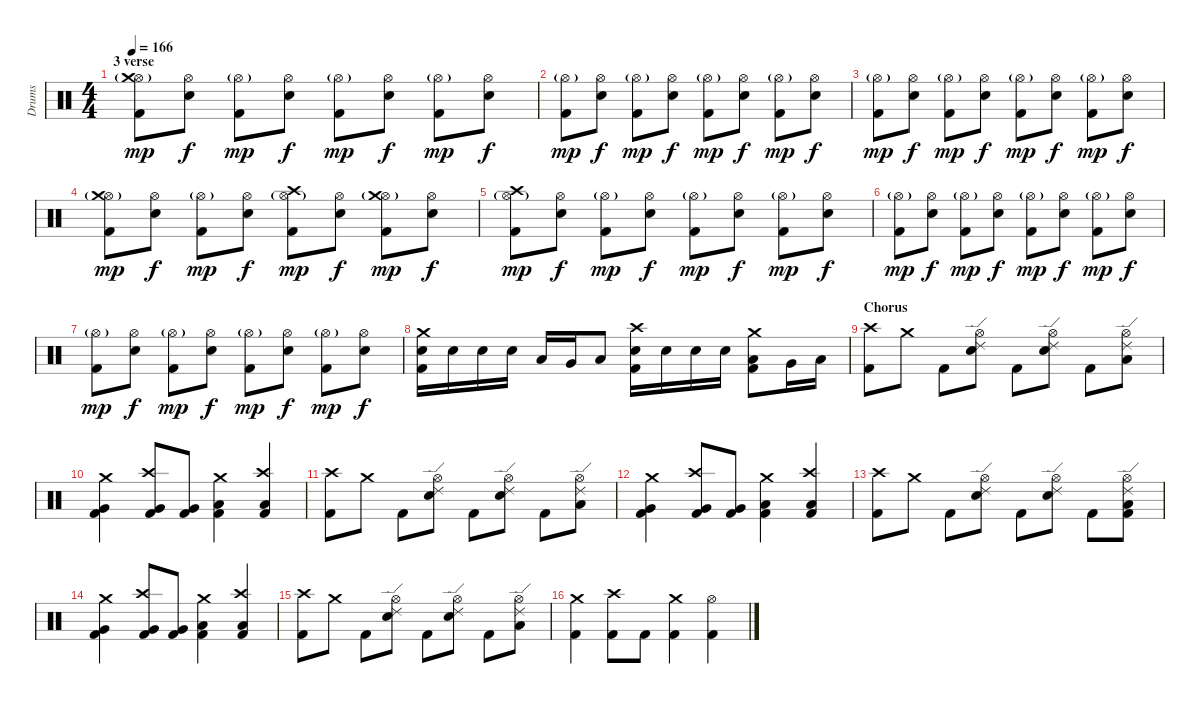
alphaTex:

\track ("Drums" "Drums") {instrument percussion}
\staff {score}
\articulation defaults
\ts (4 4)
\section ("" "3 verse")
\tempo 166
\clef neutral
\ks c
("Hi-Hat (open)"{g} "Crash medium (hit)" "Kick (hit) 2").8{dy mp} ("Hi-Hat (open)" "Electric Snare (hit)").8{dy f} ("Hi-Hat (open)"{g} "Kick (hit) 2").8{dy mp} ("Hi-Hat (open)" "Electric Snare (hit)").8{dy f} ("Hi-Hat (open)"{g} "Kick (hit) 2").8{dy mp} ("Hi-Hat (open)" "Electric Snare (hit)").8{dy f} ("Hi-Hat (open)"{g} "Kick (hit) 2").8{dy mp} ("Hi-Hat (open)" "Electric Snare (hit)").8{dy f} |
("Hi-Hat (open)"{g} "Kick (hit) 2").8{dy mp} ("Hi-Hat (open)" "Electric Snare (hit)").8{dy f} ("Hi-Hat (open)"{g} "Kick (hit) 2").8{dy mp} ("Hi-Hat (open)" "Electric Snare (hit)").8{dy f} ("Hi-Hat (open)"{g} "Kick (hit) 2").8{dy mp} ("Hi-Hat (open)" "Electric Snare (hit)").8{dy f} ("Hi-Hat (open)"{g} "Kick (hit) 2").8{dy mp} ("Hi-Hat (open)" "Electric Snare (hit)").8{dy f} |
("Hi-Hat (open)"{g} "Kick (hit) 2").8{dy mp} ("Hi-Hat (open)" "Electric Snare (hit)").8{dy f} ("Hi-Hat (open)"{g} "Kick (hit) 2").8{dy mp} ("Hi-Hat (open)" "Electric Snare (hit)").8{dy f} ("Hi-Hat (open)"{g} "Kick (hit) 2").8{dy mp} ("Hi-Hat (open)" "Electric Snare (hit)").8{dy f} ("Hi-Hat (open)"{g} "Kick (hit) 2").8{dy mp} ("Hi-Hat (open)" "Electric Snare (hit)").8{dy f} |
("Hi-Hat (open)"{g} "Crash medium (hit)" "Kick (hit) 2").8{dy mp} ("Hi-Hat (open)" "Electric Snare (hit)").8{dy f} ("Hi-Hat (open)"{g} "Kick (hit) 2").8{dy mp} ("Hi-Hat (open)" "Electric Snare (hit)").8{dy f} ("Hi-Hat (open)"{g} "Crash high (hit)" "Kick (hit) 2").8{dy mp} ("Hi-Hat (open)" "Electric Snare (hit)").8{dy f} ("Hi-Hat (open)"{g} "Crash medium (hit)" "Kick (hit) 2").8{dy mp} ("Hi-Hat (open)" "Electric Snare (hit)").8{dy f} |
("Hi-Hat (open)"{g} "Crash high (hit)" "Kick (hit) 2").8{dy mp} ("Hi-Hat (open)" "Electric Snare (hit)").8{dy f} ("Hi-Hat (open)"{g} "Kick (hit) 2").8{dy mp} ("Hi-Hat (open)" "Electric Snare (hit)").8{dy f} ("Hi-Hat (open)"{g} "Kick (hit) 2").8{dy mp} ("Hi-Hat (open)" "Electric Snare (hit)").8{dy f} ("Hi-Hat (open)"{g} "Kick (hit) 2").8{dy mp} ("Hi-Hat (open)" "Electric Snare (hit)").8{dy f} |
("Hi-Hat (open)"{g} "Kick (hit) 2").8{dy mp} ("Hi-Hat (open)" "Electric Snare (hit)").8{dy f} ("Hi-Hat (open)"{g} "Kick (hit) 2").8{dy mp} ("Hi-Hat (open)" "Electric Snare (hit)").8{dy f} ("Hi-Hat (open)"{g} "Kick (hit) 2").8{dy mp} ("Hi-Hat (open)" "Electric Snare (hit)").8{dy f} ("Hi-Hat (open)"{g} "Kick (hit) 2").8{dy mp} ("Hi-Hat (open)" "Electric Snare (hit)").8{dy f} |
("Hi-Hat (open)"{g} "Kick (hit) 2").8{dy mp} ("Hi-Hat (open)" "Electric Snare (hit)").8{dy f} ("Hi-Hat (open)"{g} "Kick (hit) 2").8{dy mp} ("Hi-Hat (open)" "Electric Snare (hit)").8{dy f} ("Hi-Hat (open)"{g} "Kick (hit) 2").8{dy mp} ("Hi-Hat (open)" "Electric Snare (hit)").8{dy f} ("Hi-Hat (open)"{g} "Kick (hit) 2").8{dy mp} ("Hi-Hat (open)" "Electric Snare (hit)").8{dy f} |
("Crash medium (hit)" "Electric Snare (hit)" "Kick (hit) 2").16 "Electric Snare (hit)".16 "Electric Snare (hit)".16 "Electric Snare (hit)".16 "Low Tom (hit)".16 "Very Low Tom (hit)".16 "Low Floor Tom (hit)".8 ("Crash high (hit)" "Electric Snare (hit)" "Kick (hit) 2").16 "Electric Snare (hit)".16 "Electric Snare (hit)".16 "Electric Snare (hit)".16 ("Crash medium (hit)" "Low Tom (hit)" "Kick (hit) 2").8 "Very Low Tom (hit)".16 "Low Floor Tom (hit)".16 |
\section ("" "Chorus")
("Crash high (hit)" "Kick (hit) 2").8 "Crash medium (hit)".8 "Kick (hit) 2".8 ("Hi-Hat (open)" "Ride (edge) 2" "Electric Snare (hit)").8 "Kick (hit) 2".8 ("Hi-Hat (open)" "Ride (edge) 2" "Electric Snare (hit)").8 "Kick (hit) 2".8 ("Hi-Hat (open)" "Ride (edge) 2" "Low Tom (hit)").8 |
("Crash medium (hit)" "Very Low Tom (hit)" "Kick (hit) 2").4 ("Crash high (hit)" "Very Low Tom (hit)" "Kick (hit) 2").8 ("Very Low Tom (hit)" "Kick (hit) 2").8 ("Crash medium (hit)" "Low Floor Tom (hit)" "Kick (hit) 2").4 ("Crash high (hit)" "Low Floor Tom (hit)" "Kick (hit) 2").4 |
("Crash high (hit)" "Kick (hit) 2").8 "Crash medium (hit)".8 "Kick (hit) 2".8 ("Hi-Hat (open)" "Ride (edge) 2" "Electric Snare (hit)").8 "Kick (hit) 2".8 ("Hi-Hat (open)" "Ride (edge) 2" "Electric Snare (hit)").8 "Kick (hit) 2".8 ("Hi-Hat (open)" "Ride (edge) 2" "Low Tom (hit)").8 |
("Crash medium (hit)" "Very Low Tom (hit)" "Kick (hit) 2").4 ("Crash high (hit)" "Very Low Tom (hit)" "Kick (hit) 2").8 ("Very Low Tom (hit)" "Kick (hit) 2").8 ("Crash medium (hit)" "Low Floor Tom (hit)" "Kick (hit) 2").4 ("Crash high (hit)" "Low Floor Tom (hit)" "Kick (hit) 2").4 |
("Crash high (hit)" "Kick (hit) 2").8 "Crash medium (hit)".8 "Kick (hit) 2".8 ("Hi-Hat (open)" "Ride (edge) 2" "Electric Snare (hit)").8 "Kick (hit) 2".8 ("Hi-Hat (open)" "Ride (edge) 2" "Electric Snare (hit)").8 "Kick (hit) 2".8 ("Hi-Hat (open)" "Ride (edge) 2" "Low Tom (hit)" "Kick (hit) 2").8 |
("Crash medium (hit)" "Very Low Tom (hit)" "Kick (hit) 2").4 ("Crash high (hit)" "Very Low Tom (hit)" "Kick (hit) 2").8 ("Very Low Tom (hit)" "Kick (hit) 2").8 ("Crash medium (hit)" "Low Floor Tom (hit)" "Kick (hit) 2").4 ("Crash high (hit)" "Low Floor Tom (hit)" "Kick (hit) 2").4 |
("Crash high (hit)" "Kick (hit) 2").8 "Crash medium (hit)".8 "Kick (hit) 2".8 ("Hi-Hat (open)" "Ride (edge) 2" "Electric Snare (hit)").8 "Kick (hit) 2".8 ("Hi-Hat (open)" "Ride (edge) 2" "Electric Snare (hit)").8 "Kick (hit) 2".8 ("Hi-Hat (open)" "Ride (edge) 2" "Low Tom (hit)").8 |
("Crash medium (hit)" "Kick (hit) 2").4 ("Crash high (hit)" "Kick (hit) 2").8 "Kick (hit) 2".8 ("Crash medium (hit)" "Kick (hit) 2").4 ("Hi-Hat (open)" "Kick (hit) 2").4
